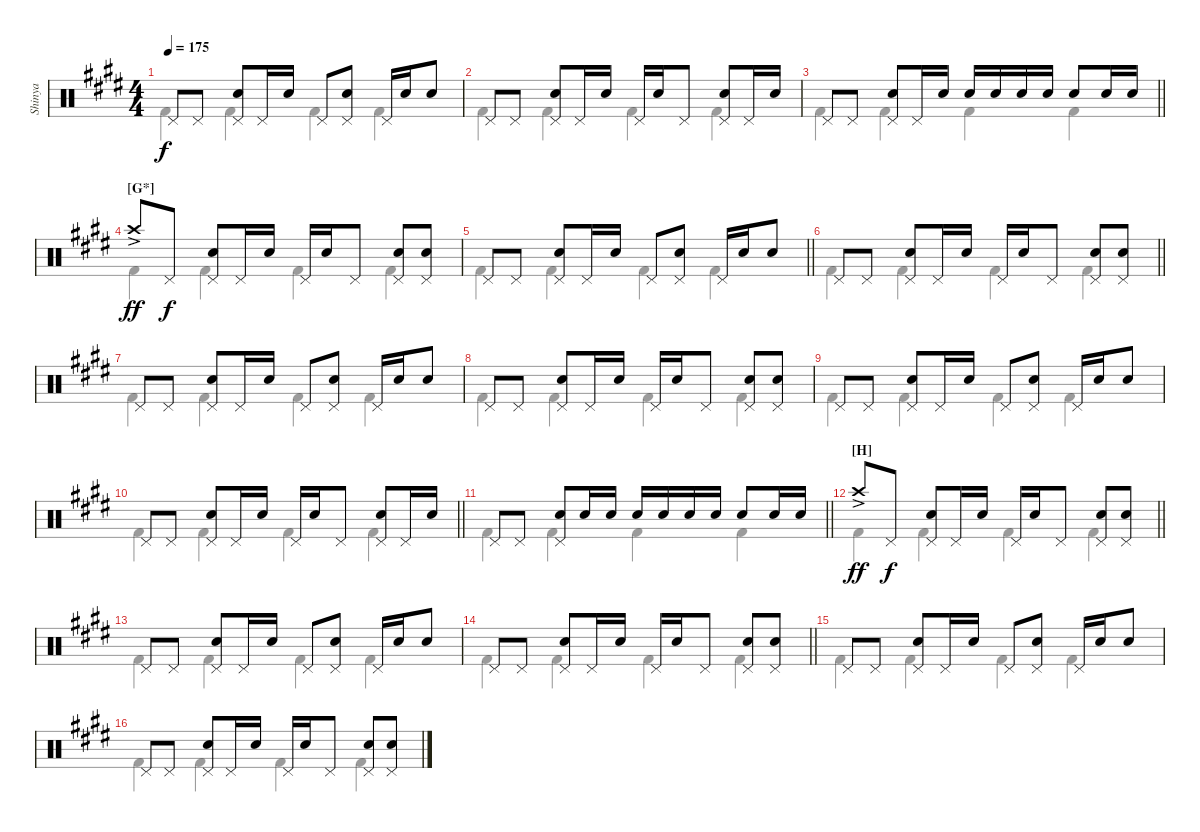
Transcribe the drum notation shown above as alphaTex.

\track ("Shinya" "Shinya") {instrument percussion}
\staff {score}
\articulation defaults
\voice
\ts (4 4)
\tempo 175
\clef neutral
\ks c#minor "Pedal Hi-Hat (hit)".8{dy f} "Pedal Hi-Hat (hit)".8
("Pedal Hi-Hat (hit)" "Snare (hit) 2").8 "Pedal Hi-Hat (hit)".16 "Snare (hit) 2".16 "Pedal Hi-Hat (hit)".8 ("Pedal Hi-Hat (hit)" "Snare (hit) 2").8 "Pedal Hi-Hat (hit)".16 "Snare (hit) 2".16 "Snare (hit) 2".8 |
"Pedal Hi-Hat (hit)".8 "Pedal Hi-Hat (hit)".8 ("Pedal Hi-Hat (hit)" "Snare (hit) 2").8 "Pedal Hi-Hat (hit)".16 "Snare (hit) 2".16 "Pedal Hi-Hat (hit)".16 "Snare (hit) 2".16 "Pedal Hi-Hat (hit)".8 ("Pedal Hi-Hat (hit)" "Snare (hit) 2").8 "Pedal Hi-Hat (hit)".16 "Snare (hit) 2".16 |
\barLineRight lightlight "Pedal Hi-Hat (hit)".8 "Pedal Hi-Hat (hit)".8
("Pedal Hi-Hat (hit)" "Snare (hit) 2").8 "Pedal Hi-Hat (hit)".16 "Snare (hit) 2".16 "Snare (hit) 2".16 "Snare (hit) 2".16 "Snare (hit) 2".16 "Snare (hit) 2".16 "Snare (hit) 2".8 "Snare (hit) 2".16 "Snare (hit) 2".16 |
\section ("" "[G*]")
"Crash high (hit)"{ac}.8{dy ff} "Pedal Hi-Hat (hit)".8{dy f} ("Pedal Hi-Hat (hit)" "Snare (hit) 2").8 "Pedal Hi-Hat (hit)".16 "Snare (hit) 2".16 "Pedal Hi-Hat (hit)".16 "Snare (hit) 2".16 "Pedal Hi-Hat (hit)".8 ("Pedal Hi-Hat (hit)" "Snare (hit) 2").8 ("Pedal Hi-Hat (hit)" "Snare (hit) 2").8 |
\barLineRight lightlight "Pedal Hi-Hat (hit)".8 "Pedal Hi-Hat (hit)".8
("Pedal Hi-Hat (hit)" "Snare (hit) 2").8 "Pedal Hi-Hat (hit)".16 "Snare (hit) 2".16 "Pedal Hi-Hat (hit)".8 ("Pedal Hi-Hat (hit)" "Snare (hit) 2").8 "Pedal Hi-Hat (hit)".16 "Snare (hit) 2".16 "Snare (hit) 2".8 |
\barLineRight lightlight "Pedal Hi-Hat (hit)".8 "Pedal Hi-Hat (hit)".8
("Pedal Hi-Hat (hit)" "Snare (hit) 2").8 "Pedal Hi-Hat (hit)".16 "Snare (hit) 2".16 "Pedal Hi-Hat (hit)".16 "Snare (hit) 2".16 "Pedal Hi-Hat (hit)".8 ("Pedal Hi-Hat (hit)" "Snare (hit) 2").8 ("Pedal Hi-Hat (hit)" "Snare (hit) 2").8 |
"Pedal Hi-Hat (hit)".8 "Pedal Hi-Hat (hit)".8 ("Pedal Hi-Hat (hit)" "Snare (hit) 2").8 "Pedal Hi-Hat (hit)".16 "Snare (hit) 2".16 "Pedal Hi-Hat (hit)".8 ("Pedal Hi-Hat (hit)" "Snare (hit) 2").8 "Pedal Hi-Hat (hit)".16 "Snare (hit) 2".16 "Snare (hit) 2".8 |
"Pedal Hi-Hat (hit)".8 "Pedal Hi-Hat (hit)".8 ("Pedal Hi-Hat (hit)" "Snare (hit) 2").8 "Pedal Hi-Hat (hit)".16 "Snare (hit) 2".16 "Pedal Hi-Hat (hit)".16 "Snare (hit) 2".16 "Pedal Hi-Hat (hit)".8 ("Pedal Hi-Hat (hit)" "Snare (hit) 2").8 ("Pedal Hi-Hat (hit)" "Snare (hit) 2").8 |
"Pedal Hi-Hat (hit)".8 "Pedal Hi-Hat (hit)".8 ("Pedal Hi-Hat (hit)" "Snare (hit) 2").8 "Pedal Hi-Hat (hit)".16 "Snare (hit) 2".16 "Pedal Hi-Hat (hit)".8 ("Pedal Hi-Hat (hit)" "Snare (hit) 2").8 "Pedal Hi-Hat (hit)".16 "Snare (hit) 2".16 "Snare (hit) 2".8 |
\barLineRight lightlight "Pedal Hi-Hat (hit)".8 "Pedal Hi-Hat (hit)".8
("Pedal Hi-Hat (hit)" "Snare (hit) 2").8 "Pedal Hi-Hat (hit)".16 "Snare (hit) 2".16 "Pedal Hi-Hat (hit)".16 "Snare (hit) 2".16 "Pedal Hi-Hat (hit)".8 ("Pedal Hi-Hat (hit)" "Snare (hit) 2").8 "Pedal Hi-Hat (hit)".16 "Snare (hit) 2".16 |
\barLineRight lightlight "Pedal Hi-Hat (hit)".8 "Pedal Hi-Hat (hit)".8
("Pedal Hi-Hat (hit)" "Snare (hit) 2").8 "Snare (hit) 2".16 "Snare (hit) 2".16 "Snare (hit) 2".16 "Snare (hit) 2".16 "Snare (hit) 2".16 "Snare (hit) 2".16 "Snare (hit) 2".8 "Snare (hit) 2".16 "Snare (hit) 2".16 |
\section ("" "[H]")
\barLineRight lightlight "Crash high (hit)"{ac}.8{dy ff} "Pedal Hi-Hat (hit)".8{dy f}
("Pedal Hi-Hat (hit)" "Snare (hit) 2").8 "Pedal Hi-Hat (hit)".16 "Snare (hit) 2".16 "Pedal Hi-Hat (hit)".16 "Snare (hit) 2".16 "Pedal Hi-Hat (hit)".8 ("Pedal Hi-Hat (hit)" "Snare (hit) 2").8 ("Pedal Hi-Hat (hit)" "Snare (hit) 2").8 |
"Pedal Hi-Hat (hit)".8 "Pedal Hi-Hat (hit)".8 ("Pedal Hi-Hat (hit)" "Snare (hit) 2").8 "Pedal Hi-Hat (hit)".16 "Snare (hit) 2".16 "Pedal Hi-Hat (hit)".8 ("Pedal Hi-Hat (hit)" "Snare (hit) 2").8 "Pedal Hi-Hat (hit)".16 "Snare (hit) 2".16 "Snare (hit) 2".8 |
\barLineRight lightlight "Pedal Hi-Hat (hit)".8 "Pedal Hi-Hat (hit)".8
("Pedal Hi-Hat (hit)" "Snare (hit) 2").8 "Pedal Hi-Hat (hit)".16 "Snare (hit) 2".16 "Pedal Hi-Hat (hit)".16 "Snare (hit) 2".16 "Pedal Hi-Hat (hit)".8 ("Pedal Hi-Hat (hit)" "Snare (hit) 2").8 ("Pedal Hi-Hat (hit)" "Snare (hit) 2").8 |
"Pedal Hi-Hat (hit)".8 "Pedal Hi-Hat (hit)".8 ("Pedal Hi-Hat (hit)" "Snare (hit) 2").8 "Pedal Hi-Hat (hit)".16 "Snare (hit) 2".16 "Pedal Hi-Hat (hit)".8 ("Pedal Hi-Hat (hit)" "Snare (hit) 2").8 "Pedal Hi-Hat (hit)".16 "Snare (hit) 2".16 "Snare (hit) 2".8 |
"Pedal Hi-Hat (hit)".8 "Pedal Hi-Hat (hit)".8 ("Pedal Hi-Hat (hit)" "Snare (hit) 2").8 "Pedal Hi-Hat (hit)".16 "Snare (hit) 2".16 "Pedal Hi-Hat (hit)".16 "Snare (hit) 2".16 "Pedal Hi-Hat (hit)".8 ("Pedal Hi-Hat (hit)" "Snare (hit) 2").8 ("Pedal Hi-Hat (hit)" "Snare (hit) 2").8
\voice
\clef neutral
\ottava regular
\simile none
\ks c#minor "Kick (hit) 2".4{dy f} "Kick (hit) 2".4 "Kick (hit) 2".4 "Kick (hit) 2".4
|
"Kick (hit) 2".4 "Kick (hit) 2".4 "Kick (hit) 2".4 "Kick (hit) 2".4 |
\barLineRight lightlight "Kick (hit) 2".4 "Kick (hit) 2".4 "Kick (hit) 2".4 "Kick (hit) 2".4
|
"Kick (hit) 2".4 "Kick (hit) 2".4 "Kick (hit) 2".4 "Kick (hit) 2".4 |
\barLineRight lightlight "Kick (hit) 2".4 "Kick (hit) 2".4 "Kick (hit) 2".4 "Kick (hit) 2".4
|
\barLineRight lightlight "Kick (hit) 2".4 "Kick (hit) 2".4 "Kick (hit) 2".4 "Kick (hit) 2".4
|
"Kick (hit) 2".4 "Kick (hit) 2".4 "Kick (hit) 2".4 "Kick (hit) 2".4 |
"Kick (hit) 2".4 "Kick (hit) 2".4 "Kick (hit) 2".4 "Kick (hit) 2".4 |
"Kick (hit) 2".4 "Kick (hit) 2".4 "Kick (hit) 2".4 "Kick (hit) 2".4 |
\barLineRight lightlight "Kick (hit) 2".4 "Kick (hit) 2".4 "Kick (hit) 2".4 "Kick (hit) 2".4
|
\barLineRight lightlight "Kick (hit) 2".4 "Kick (hit) 2".4 "Kick (hit) 2".4 "Kick (hit) 2".4
|
\barLineRight lightlight "Kick (hit) 2".4 "Kick (hit) 2".4 "Kick (hit) 2".4 "Kick (hit) 2".4
|
"Kick (hit) 2".4 "Kick (hit) 2".4 "Kick (hit) 2".4 "Kick (hit) 2".4 |
\barLineRight lightlight "Kick (hit) 2".4 "Kick (hit) 2".4 "Kick (hit) 2".4 "Kick (hit) 2".4
|
"Kick (hit) 2".4 "Kick (hit) 2".4 "Kick (hit) 2".4 "Kick (hit) 2".4 |
"Kick (hit) 2".4 "Kick (hit) 2".4 "Kick (hit) 2".4 "Kick (hit) 2".4
